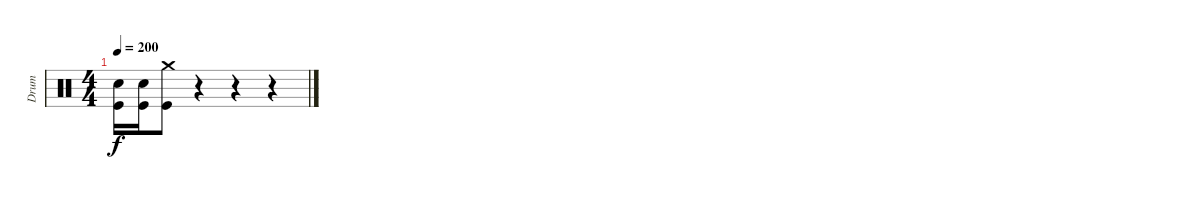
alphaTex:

\track ("Drum" "Drum") {instrument percussion}
\staff {score}
\articulation defaults
\ts (4 4)
\tempo 200
\clef neutral
\ks c
("Snare (hit) 2" "Kick (hit)").16{dy f} ("Snare (hit) 2" "Kick (hit)").16 ("Crash medium (hit)" "Kick (hit)").8 r.4 r.4 r.4
